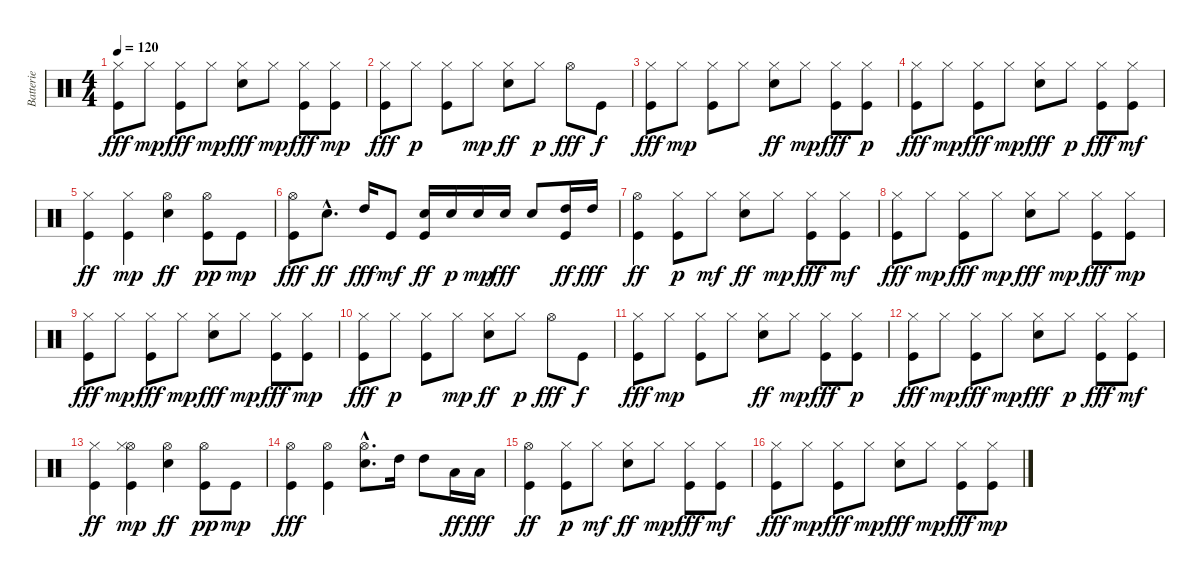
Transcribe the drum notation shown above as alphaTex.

\track ("Batterie" "Batterie") {instrument percussion}
\staff {score}
\articulation defaults
\ts (4 4)
\tempo 120
\clef neutral
\ks c
("Kick (hit)" "Hi-Hat (closed)").8{dy fff} "Hi-Hat (closed)".8{dy mp} ("Kick (hit)" "Hi-Hat (closed)").8{dy fff} "Hi-Hat (closed)".8{dy mp} ("Electric Snare (hit)" "Hi-Hat (closed)").8{dy fff} "Hi-Hat (closed)".8{dy mp} ("Kick (hit)" "Hi-Hat (closed)").8{dy fff} ("Hi-Hat (closed)" "Kick (hit)").8{dy mp} |
("Kick (hit)" "Hi-Hat (closed)").8{dy fff} "Hi-Hat (closed)".8{dy p} ("Hi-Hat (closed)" "Kick (hit)").8 "Hi-Hat (closed)".8{dy mp} ("Hi-Hat (closed)" "Electric Snare (hit)").8{dy ff} "Hi-Hat (closed)".8{dy p} "Hi-Hat (open)".8{dy fff} "Kick (hit)".8{dy f} |
("Kick (hit)" "Hi-Hat (closed)").8{dy fff} "Hi-Hat (closed)".8{dy mp} ("Hi-Hat (closed)" "Kick (hit)").8 "Hi-Hat (closed)".8 ("Hi-Hat (closed)" "Electric Snare (hit)").8{dy ff} "Hi-Hat (closed)".8{dy mp} ("Kick (hit)" "Hi-Hat (closed)").8{dy fff} ("Kick (hit)" "Hi-Hat (closed)").8{dy p} |
("Kick (hit)" "Hi-Hat (closed)").8{dy fff} "Hi-Hat (closed)".8{dy mp} ("Kick (hit)" "Hi-Hat (closed)").8{dy fff} "Hi-Hat (closed)".8{dy mp} ("Electric Snare (hit)" "Hi-Hat (closed)").8{dy fff} "Hi-Hat (closed)".8{dy p} ("Kick (hit)" "Hi-Hat (closed)").8{dy fff} ("Kick (hit)" "Hi-Hat (closed)").8{dy mf} |
("Kick (hit)" "Hi-Hat (closed)").4{dy ff} ("Hi-Hat (closed)" "Kick (hit)").4{dy mp} ("Hi-Hat (open)" "Electric Snare (hit)").4{dy ff} ("Hi-Hat (open)" "Kick (hit)").8{dy pp} "Kick (hit)".8{dy mp} |
("Kick (hit)" "Hi-Hat (open)").8{dy fff} "Electric Snare (hit)"{hac}.8{d dy ff} "High Tom (hit)".16{dy fff} "Kick (hit)".8{dy mf} ("Electric Snare (hit)" "Kick (hit)").16{dy ff} "Electric Snare (hit)".16{dy p} "Electric Snare (hit)".16{dy mp} "Electric Snare (hit)".16{dy fff} "Electric Snare (hit)".8 ("High Tom (hit)" "Kick (hit)").16{dy ff} "High Tom (hit)".16{dy fff} |
("Hi-Hat (open)" "Kick (hit)").4{dy ff} ("Hi-Hat (closed)" "Kick (hit)").8{dy p} "Hi-Hat (closed)".8{dy mf} ("Hi-Hat (closed)" "Electric Snare (hit)").8{dy ff} "Hi-Hat (closed)".8{dy mp} ("Kick (hit)" "Hi-Hat (closed)").8{dy fff} ("Kick (hit)" "Hi-Hat (closed)").8{dy mf} |
("Kick (hit)" "Hi-Hat (closed)").8{dy fff} "Hi-Hat (closed)".8{dy mp} ("Kick (hit)" "Hi-Hat (closed)").8{dy fff} "Hi-Hat (closed)".8{dy mp} ("Electric Snare (hit)" "Hi-Hat (closed)").8{dy fff} "Hi-Hat (closed)".8{dy mp} ("Kick (hit)" "Hi-Hat (closed)").8{dy fff} ("Hi-Hat (closed)" "Kick (hit)").8{dy mp} |
("Kick (hit)" "Hi-Hat (closed)").8{dy fff} "Hi-Hat (closed)".8{dy mp} ("Kick (hit)" "Hi-Hat (closed)").8{dy fff} "Hi-Hat (closed)".8{dy mp} ("Electric Snare (hit)" "Hi-Hat (closed)").8{dy fff} "Hi-Hat (closed)".8{dy mp} ("Kick (hit)" "Hi-Hat (closed)").8{dy fff} ("Hi-Hat (closed)" "Kick (hit)").8{dy mp} |
("Kick (hit)" "Hi-Hat (closed)").8{dy fff} "Hi-Hat (closed)".8{dy p} ("Hi-Hat (closed)" "Kick (hit)").8 "Hi-Hat (closed)".8{dy mp} ("Hi-Hat (closed)" "Electric Snare (hit)").8{dy ff} "Hi-Hat (closed)".8{dy p} "Hi-Hat (open)".8{dy fff} "Kick (hit)".8{dy f} |
("Kick (hit)" "Hi-Hat (closed)").8{dy fff} "Hi-Hat (closed)".8{dy mp} ("Hi-Hat (closed)" "Kick (hit)").8 "Hi-Hat (closed)".8 ("Hi-Hat (closed)" "Electric Snare (hit)").8{dy ff} "Hi-Hat (closed)".8{dy mp} ("Kick (hit)" "Hi-Hat (closed)").8{dy fff} ("Kick (hit)" "Hi-Hat (closed)").8{dy p} |
("Kick (hit)" "Hi-Hat (closed)").8{dy fff} "Hi-Hat (closed)".8{dy mp} ("Kick (hit)" "Hi-Hat (closed)").8{dy fff} "Hi-Hat (closed)".8{dy mp} ("Electric Snare (hit)" "Hi-Hat (closed)").8{dy fff} "Hi-Hat (closed)".8{dy p} ("Kick (hit)" "Hi-Hat (closed)").8{dy fff} ("Kick (hit)" "Hi-Hat (closed)").8{dy mf} |
("Kick (hit)" "Hi-Hat (closed)").4{dy ff} ("Hi-Hat (open)" "Hi-Hat (closed)" "Kick (hit)").4{dy mp} ("Hi-Hat (open)" "Electric Snare (hit)").4{dy ff} ("Hi-Hat (open)" "Kick (hit)").8{dy pp} "Kick (hit)".8{dy mp} |
("Kick (hit)" "Hi-Hat (open)").4{dy fff} ("Kick (hit)" "Hi-Hat (open)").4 ("Electric Snare (hit)"{hac} "Hi-Hat (open)"{hac}).8{d} "High Tom (hit)".16 "High Tom (hit)".8 "Low Tom (hit)".16{dy ff} "Low Tom (hit)".16{dy fff} |
("Hi-Hat (open)" "Kick (hit)").4{dy ff} ("Hi-Hat (closed)" "Kick (hit)").8{dy p} "Hi-Hat (closed)".8{dy mf} ("Hi-Hat (closed)" "Electric Snare (hit)").8{dy ff} "Hi-Hat (closed)".8{dy mp} ("Kick (hit)" "Hi-Hat (closed)").8{dy fff} ("Kick (hit)" "Hi-Hat (closed)").8{dy mf} |
("Kick (hit)" "Hi-Hat (closed)").8{dy fff} "Hi-Hat (closed)".8{dy mp} ("Kick (hit)" "Hi-Hat (closed)").8{dy fff} "Hi-Hat (closed)".8{dy mp} ("Electric Snare (hit)" "Hi-Hat (closed)").8{dy fff} "Hi-Hat (closed)".8{dy mp} ("Kick (hit)" "Hi-Hat (closed)").8{dy fff} ("Hi-Hat (closed)" "Kick (hit)").8{dy mp}
